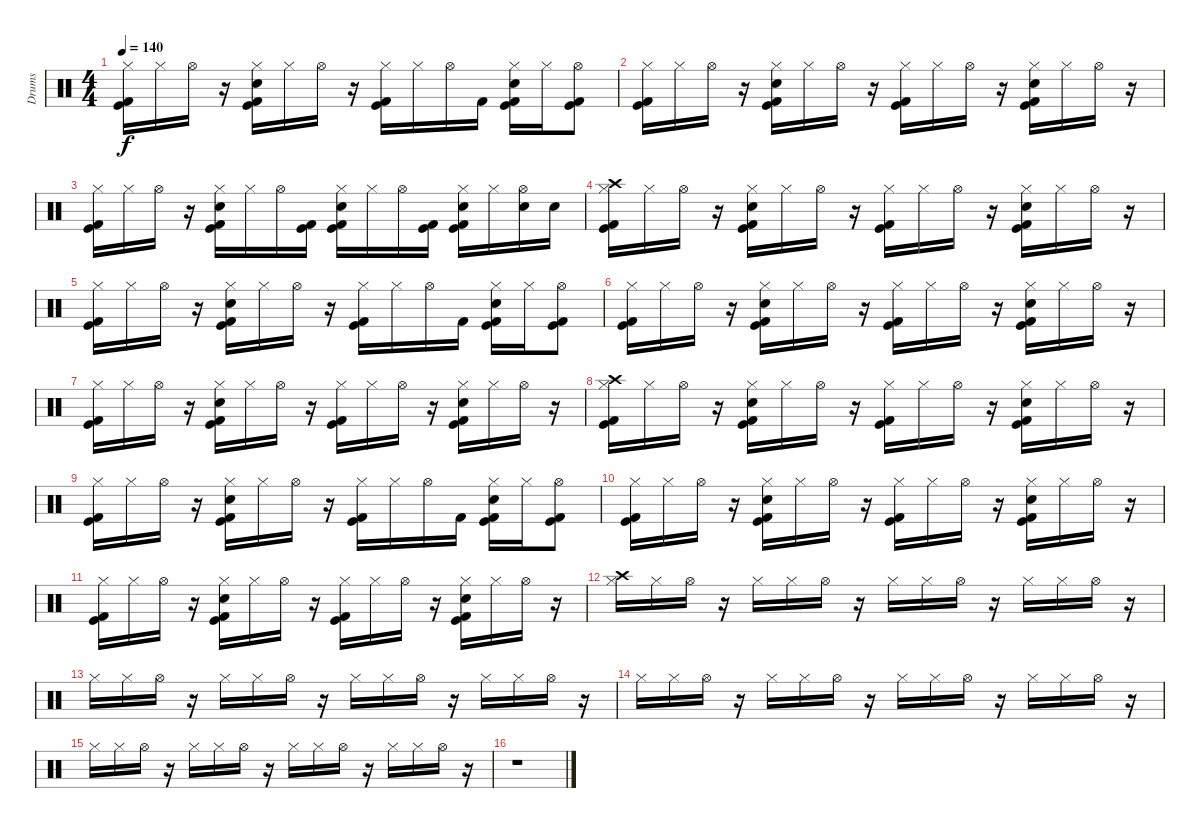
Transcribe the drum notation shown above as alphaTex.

\track ("Drums" "Drums") {instrument percussion}
\staff {score}
\articulation defaults
\ts (4 4)
\tempo 140
\clef neutral
\ks c
("Kick (hit) 2" "Hi-Hat (closed)" "Kick (hit)").16{dy f} "Hi-Hat (closed)".16 "Hi-Hat (open)".16 r.16 ("Kick (hit) 2" "Hi-Hat (closed)" "Snare (hit) 2" "Kick (hit)").16 "Hi-Hat (closed)".16 "Hi-Hat (open)".16 r.16 ("Kick (hit) 2" "Kick (hit)" "Hi-Hat (closed)").16 "Hi-Hat (closed)".16 "Hi-Hat (open)".16 "Kick (hit) 2".16 ("Hi-Hat (closed)" "Kick (hit) 2" "Kick (hit)" "Snare (hit) 2").16 "Hi-Hat (closed)".16 ("Hi-Hat (open)" "Kick (hit)" "Kick (hit) 2").8 |
("Kick (hit) 2" "Hi-Hat (closed)" "Kick (hit)").16 "Hi-Hat (closed)".16 "Hi-Hat (open)".16 r.16 ("Hi-Hat (closed)" "Snare (hit) 2" "Kick (hit)" "Kick (hit) 2").16 "Hi-Hat (closed)".16 "Hi-Hat (open)".16 r.16 ("Hi-Hat (closed)" "Kick (hit) 2" "Kick (hit)").16 "Hi-Hat (closed)".16 "Hi-Hat (open)".16 r.16 ("Hi-Hat (closed)" "Kick (hit) 2" "Kick (hit)" "Snare (hit) 2").16 "Hi-Hat (closed)".16 "Hi-Hat (open)".16 r.16 |
("Kick (hit)" "Hi-Hat (closed)" "Kick (hit) 2").16 "Hi-Hat (closed)".16 "Hi-Hat (open)".16 r.16 ("Snare (hit) 2" "Kick (hit)" "Hi-Hat (closed)" "Kick (hit) 2").16 "Hi-Hat (closed)".16 "Hi-Hat (open)".16 ("Kick (hit) 2" "Kick (hit)").16 ("Hi-Hat (closed)" "Kick (hit) 2" "Snare (hit) 2" "Kick (hit)").16 "Hi-Hat (closed)".16 "Hi-Hat (open)".16 ("Kick (hit)" "Kick (hit) 2").16 ("Hi-Hat (closed)" "Kick (hit) 2" "Kick (hit)" "Snare (hit) 2").16 "Hi-Hat (closed)".16 ("Snare (hit) 2" "Hi-Hat (open)").16 "Snare (hit) 2".16 |
("Kick (hit) 2" "Hi-Hat (closed)" "Kick (hit)" "Crash high (hit)").16 "Hi-Hat (closed)".16 "Hi-Hat (open)".16 r.16 ("Snare (hit) 2" "Kick (hit)" "Hi-Hat (closed)" "Kick (hit) 2").16 "Hi-Hat (closed)".16 "Hi-Hat (open)".16 r.16 ("Hi-Hat (closed)" "Kick (hit) 2" "Kick (hit)").16 "Hi-Hat (closed)".16 "Hi-Hat (open)".16 r.16 ("Kick (hit) 2" "Kick (hit)" "Hi-Hat (closed)" "Snare (hit) 2").16 "Hi-Hat (closed)".16 "Hi-Hat (open)".16 r.16 |
("Kick (hit)" "Hi-Hat (closed)" "Kick (hit) 2").16 "Hi-Hat (closed)".16 "Hi-Hat (open)".16 r.16 ("Kick (hit) 2" "Kick (hit)" "Snare (hit) 2" "Hi-Hat (closed)").16 "Hi-Hat (closed)".16 "Hi-Hat (open)".16 r.16 ("Kick (hit) 2" "Kick (hit)" "Hi-Hat (closed)").16 "Hi-Hat (closed)".16 "Hi-Hat (open)".16 "Kick (hit) 2".16 ("Hi-Hat (closed)" "Kick (hit)" "Snare (hit) 2" "Kick (hit) 2").16 "Hi-Hat (closed)".16 ("Hi-Hat (open)" "Kick (hit) 2" "Kick (hit)").8 |
("Hi-Hat (closed)" "Kick (hit) 2" "Kick (hit)").16 "Hi-Hat (closed)".16 "Hi-Hat (open)".16 r.16 ("Kick (hit) 2" "Snare (hit) 2" "Kick (hit)" "Hi-Hat (closed)").16 "Hi-Hat (closed)".16 "Hi-Hat (open)".16 r.16 ("Kick (hit)" "Kick (hit) 2" "Hi-Hat (closed)").16 "Hi-Hat (closed)".16 "Hi-Hat (open)".16 r.16 ("Kick (hit)" "Snare (hit) 2" "Hi-Hat (closed)" "Kick (hit) 2").16 "Hi-Hat (closed)".16 "Hi-Hat (open)".16 r.16 |
("Kick (hit) 2" "Hi-Hat (closed)" "Kick (hit)").16 "Hi-Hat (closed)".16 "Hi-Hat (open)".16 r.16 ("Kick (hit)" "Kick (hit) 2" "Snare (hit) 2" "Hi-Hat (closed)").16 "Hi-Hat (closed)".16 "Hi-Hat (open)".16 r.16 ("Kick (hit) 2" "Kick (hit)" "Hi-Hat (closed)").16 "Hi-Hat (closed)".16 "Hi-Hat (open)".16 r.16 ("Hi-Hat (closed)" "Kick (hit)" "Snare (hit) 2" "Kick (hit) 2").16 "Hi-Hat (closed)".16 "Hi-Hat (open)".16 r.16 |
("Kick (hit)" "Kick (hit) 2" "Hi-Hat (closed)" "Crash high (hit)").16 "Hi-Hat (closed)".16 "Hi-Hat (open)".16 r.16 ("Hi-Hat (closed)" "Kick (hit) 2" "Kick (hit)" "Snare (hit) 2").16 "Hi-Hat (closed)".16 "Hi-Hat (open)".16 r.16 ("Kick (hit) 2" "Hi-Hat (closed)" "Kick (hit)").16 "Hi-Hat (closed)".16 "Hi-Hat (open)".16 r.16 ("Hi-Hat (closed)" "Snare (hit) 2" "Kick (hit)" "Kick (hit) 2").16 "Hi-Hat (closed)".16 "Hi-Hat (open)".16 r.16 |
("Hi-Hat (closed)" "Kick (hit)" "Kick (hit) 2").16 "Hi-Hat (closed)".16 "Hi-Hat (open)".16 r.16 ("Kick (hit) 2" "Hi-Hat (closed)" "Snare (hit) 2" "Kick (hit)").16 "Hi-Hat (closed)".16 "Hi-Hat (open)".16 r.16 ("Hi-Hat (closed)" "Kick (hit)" "Kick (hit) 2").16 "Hi-Hat (closed)".16 "Hi-Hat (open)".16 "Kick (hit) 2".16 ("Snare (hit) 2" "Kick (hit) 2" "Kick (hit)" "Hi-Hat (closed)").16 "Hi-Hat (closed)".16 ("Kick (hit)" "Kick (hit) 2" "Hi-Hat (open)").8 |
("Kick (hit) 2" "Kick (hit)" "Hi-Hat (closed)").16 "Hi-Hat (closed)".16 "Hi-Hat (open)".16 r.16 ("Kick (hit)" "Hi-Hat (closed)" "Snare (hit) 2" "Kick (hit) 2").16 "Hi-Hat (closed)".16 "Hi-Hat (open)".16 r.16 ("Kick (hit) 2" "Hi-Hat (closed)" "Kick (hit)").16 "Hi-Hat (closed)".16 "Hi-Hat (open)".16 r.16 ("Hi-Hat (closed)" "Kick (hit) 2" "Snare (hit) 2" "Kick (hit)").16 "Hi-Hat (closed)".16 "Hi-Hat (open)".16 r.16 |
("Hi-Hat (closed)" "Kick (hit)" "Kick (hit) 2").16 "Hi-Hat (closed)".16 "Hi-Hat (open)".16 r.16 ("Hi-Hat (closed)" "Snare (hit) 2" "Kick (hit)" "Kick (hit) 2").16 "Hi-Hat (closed)".16 "Hi-Hat (open)".16 r.16 ("Kick (hit)" "Kick (hit) 2" "Hi-Hat (closed)").16 "Hi-Hat (closed)".16 "Hi-Hat (open)".16 r.16 ("Kick (hit) 2" "Snare (hit) 2" "Hi-Hat (closed)" "Kick (hit)").16 "Hi-Hat (closed)".16 "Hi-Hat (open)".16 r.16 |
("Hi-Hat (closed)" "Crash high (hit)").16 "Hi-Hat (closed)".16 "Hi-Hat (open)".16 r.16 "Hi-Hat (closed)".16 "Hi-Hat (closed)".16 "Hi-Hat (open)".16 r.16 "Hi-Hat (closed)".16 "Hi-Hat (closed)".16 "Hi-Hat (open)".16 r.16 "Hi-Hat (closed)".16 "Hi-Hat (closed)".16 "Hi-Hat (open)".16 r.16 |
"Hi-Hat (closed)".16 "Hi-Hat (closed)".16 "Hi-Hat (open)".16 r.16 "Hi-Hat (closed)".16 "Hi-Hat (closed)".16 "Hi-Hat (open)".16 r.16 "Hi-Hat (closed)".16 "Hi-Hat (closed)".16 "Hi-Hat (open)".16 r.16 "Hi-Hat (closed)".16 "Hi-Hat (closed)".16 "Hi-Hat (open)".16 r.16 |
"Hi-Hat (closed)".16 "Hi-Hat (closed)".16 "Hi-Hat (open)".16 r.16 "Hi-Hat (closed)".16 "Hi-Hat (closed)".16 "Hi-Hat (open)".16 r.16 "Hi-Hat (closed)".16 "Hi-Hat (closed)".16 "Hi-Hat (open)".16 r.16 "Hi-Hat (closed)".16 "Hi-Hat (closed)".16 "Hi-Hat (open)".16 r.16 |
"Hi-Hat (closed)".16 "Hi-Hat (closed)".16 "Hi-Hat (open)".16 r.16 "Hi-Hat (closed)".16 "Hi-Hat (closed)".16 "Hi-Hat (open)".16 r.16 "Hi-Hat (closed)".16 "Hi-Hat (closed)".16 "Hi-Hat (open)".16 r.16 "Hi-Hat (closed)".16 "Hi-Hat (closed)".16 "Hi-Hat (open)".16 r.16 |
r.1
